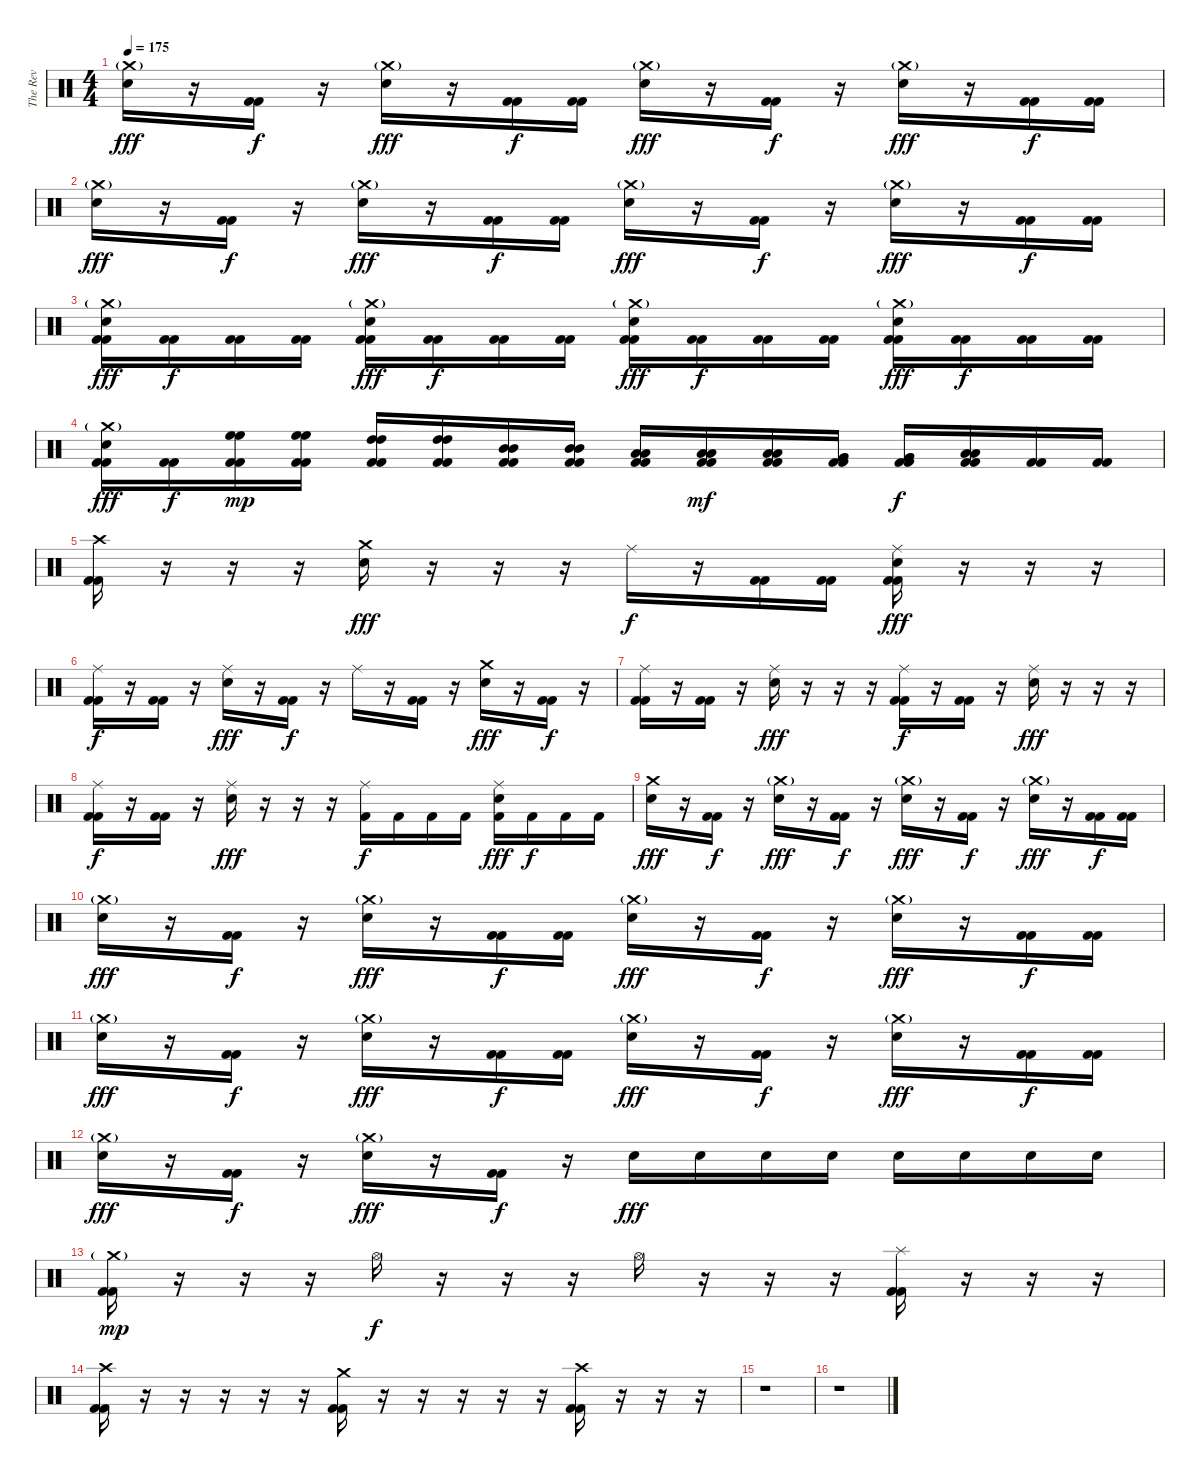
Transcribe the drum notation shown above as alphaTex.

\track ("The Rev" "The Rev") {instrument percussion}
\staff {score}
\articulation defaults
\ts (4 4)
\tempo 175
\clef neutral
\ks c
("Crash medium (hit)"{g} "Electric Snare (hit)").16{dy fff} r.16 ("Kick (hit) 2" "Kick (hit) 2").16{dy f} r.16 ("Crash medium (hit)"{g} "Electric Snare (hit)").16{dy fff} r.16 ("Kick (hit) 2" "Kick (hit) 2").16{dy f} ("Kick (hit) 2" "Kick (hit) 2").16 ("Crash medium (hit)"{g} "Electric Snare (hit)").16{dy fff} r.16 ("Kick (hit) 2" "Kick (hit) 2").16{dy f} r.16 ("Crash medium (hit)"{g} "Electric Snare (hit)").16{dy fff} r.16 ("Kick (hit) 2" "Kick (hit) 2").16{dy f} ("Kick (hit) 2" "Kick (hit) 2").16 |
("Crash medium (hit)"{g} "Electric Snare (hit)").16{dy fff} r.16 ("Kick (hit) 2" "Kick (hit) 2").16{dy f} r.16 ("Crash medium (hit)"{g} "Electric Snare (hit)").16{dy fff} r.16 ("Kick (hit) 2" "Kick (hit) 2").16{dy f} ("Kick (hit) 2" "Kick (hit) 2").16 ("Crash medium (hit)"{g} "Electric Snare (hit)").16{dy fff} r.16 ("Kick (hit) 2" "Kick (hit) 2").16{dy f} r.16 ("Crash medium (hit)"{g} "Electric Snare (hit)").16{dy fff} r.16 ("Kick (hit) 2" "Kick (hit) 2").16{dy f} ("Kick (hit) 2" "Kick (hit) 2").16 |
("Crash medium (hit)"{g} "Electric Snare (hit)" "Kick (hit) 2" "Kick (hit) 2").16{dy fff} ("Kick (hit) 2" "Kick (hit) 2").16{dy f} ("Kick (hit) 2" "Kick (hit) 2").16 ("Kick (hit) 2" "Kick (hit) 2").16 ("Crash medium (hit)"{g} "Electric Snare (hit)" "Kick (hit) 2" "Kick (hit) 2").16{dy fff} ("Kick (hit) 2" "Kick (hit) 2").16{dy f} ("Kick (hit) 2" "Kick (hit) 2").16 ("Kick (hit) 2" "Kick (hit) 2").16 ("Crash medium (hit)"{g} "Electric Snare (hit)" "Kick (hit) 2" "Kick (hit) 2").16{dy fff} ("Kick (hit) 2" "Kick (hit) 2").16{dy f} ("Kick (hit) 2" "Kick (hit) 2").16 ("Kick (hit) 2" "Kick (hit) 2").16 ("Crash medium (hit)"{g} "Electric Snare (hit)" "Kick (hit) 2" "Kick (hit) 2").16{dy fff} ("Kick (hit) 2" "Kick (hit) 2").16{dy f} ("Kick (hit) 2" "Kick (hit) 2").16 ("Kick (hit) 2" "Kick (hit) 2").16 |
("Crash medium (hit)"{g} "Electric Snare (hit)" "Kick (hit) 2" "Kick (hit) 2").16{dy fff} ("Kick (hit) 2" "Kick (hit) 2").16{dy f} ("High Floor Tom (hit)" "High Floor Tom (hit)" "Kick (hit) 2" "Kick (hit) 2").16{dy mp} ("High Floor Tom (hit)" "High Floor Tom (hit)" "Kick (hit) 2" "Kick (hit) 2").16 ("High Tom (hit)" "High Tom (hit)" "Kick (hit) 2" "Kick (hit) 2").16 ("High Tom (hit)" "High Tom (hit)" "Kick (hit) 2" "Kick (hit) 2").16 ("Mid Tom (hit)" "Mid Tom (hit)" "Kick (hit) 2" "Kick (hit) 2").16 ("Mid Tom (hit)" "Mid Tom (hit)" "Kick (hit) 2" "Kick (hit) 2").16 ("Low Tom (hit)" "Low Tom (hit)" "Kick (hit) 2" "Kick (hit) 2").16 ("Low Tom (hit)" "Low Tom (hit)" "Kick (hit) 2" "Kick (hit) 2").16{dy mf} ("Low Tom (hit)" "Low Tom (hit)" "Kick (hit) 2" "Kick (hit) 2").16 ("Very Low Tom (hit)" "Very Low Tom (hit)" "Kick (hit) 2" "Kick (hit) 2").16 ("Very Low Tom (hit)" "Very Low Tom (hit)" "Kick (hit) 2" "Kick (hit) 2").16{dy f} ("Low Floor Tom (hit)" "Low Floor Tom (hit)" "Kick (hit) 2" "Kick (hit) 2").16 ("Kick (hit) 2" "Kick (hit) 2").16 ("Kick (hit) 2" "Kick (hit) 2").16 |
("Crash high (hit)" "Kick (hit) 2" "Kick (hit) 2").16 r.16 r.16 r.16 ("Crash medium (hit)" "Electric Snare (hit)").16{dy fff} r.16 r.16 r.16 "Ride (middle)".16{dy f} r.16 ("Kick (hit) 2" "Kick (hit) 2").16 ("Kick (hit) 2" "Kick (hit) 2").16 ("Ride (middle)" "Electric Snare (hit)" "Kick (hit) 2" "Kick (hit) 2").16{dy fff} r.16 r.16 r.16 |
("Ride (middle)" "Kick (hit) 2" "Kick (hit) 2").16{dy f} r.16 ("Kick (hit) 2" "Kick (hit) 2").16 r.16 ("Ride (middle)" "Electric Snare (hit)").16{dy fff} r.16 ("Kick (hit) 2" "Kick (hit) 2").16{dy f} r.16 "Ride (middle)".16 r.16 ("Kick (hit) 2" "Kick (hit) 2").16 r.16 ("Crash medium (hit)" "Electric Snare (hit)").16{dy fff} r.16 ("Kick (hit) 2" "Kick (hit) 2").16{dy f} r.16 |
("Ride (middle)" "Kick (hit) 2" "Kick (hit) 2").16 r.16 ("Kick (hit) 2" "Kick (hit) 2").16 r.16 ("Ride (middle)" "Electric Snare (hit)").16{dy fff} r.16 r.16 r.16 ("Ride (middle)" "Kick (hit) 2" "Kick (hit) 2").16{dy f} r.16 ("Kick (hit) 2" "Kick (hit) 2").16 r.16 ("Ride (middle)" "Electric Snare (hit)").16{dy fff} r.16 r.16 r.16 |
("Ride (middle)" "Kick (hit) 2" "Kick (hit) 2").16{dy f} r.16 ("Kick (hit) 2" "Kick (hit) 2").16 r.16 ("Ride (middle)" "Electric Snare (hit)").16{dy fff} r.16 r.16 r.16 ("Ride (middle)" "Kick (hit) 2").16{dy f} "Kick (hit) 2".16 "Kick (hit) 2".16 "Kick (hit) 2".16 ("Ride (middle)" "Electric Snare (hit)" "Kick (hit) 2").16{dy fff} "Kick (hit) 2".16{dy f} "Kick (hit) 2".16 "Kick (hit) 2".16 |
("Crash medium (hit)" "Electric Snare (hit)").16{dy fff} r.16 ("Kick (hit) 2" "Kick (hit) 2").16{dy f} r.16 ("Crash medium (hit)"{g} "Electric Snare (hit)").16{dy fff} r.16 ("Kick (hit) 2" "Kick (hit) 2").16{dy f} r.16 ("Crash medium (hit)"{g} "Electric Snare (hit)").16{dy fff} r.16 ("Kick (hit) 2" "Kick (hit) 2").16{dy f} r.16 ("Crash medium (hit)"{g} "Electric Snare (hit)").16{dy fff} r.16 ("Kick (hit) 2" "Kick (hit) 2").16{dy f} ("Kick (hit) 2" "Kick (hit) 2").16 |
("Crash medium (hit)"{g} "Electric Snare (hit)").16{dy fff} r.16 ("Kick (hit) 2" "Kick (hit) 2").16{dy f} r.16 ("Crash medium (hit)"{g} "Electric Snare (hit)").16{dy fff} r.16 ("Kick (hit) 2" "Kick (hit) 2").16{dy f} ("Kick (hit) 2" "Kick (hit) 2").16 ("Crash medium (hit)"{g} "Electric Snare (hit)").16{dy fff} r.16 ("Kick (hit) 2" "Kick (hit) 2").16{dy f} r.16 ("Crash medium (hit)"{g} "Electric Snare (hit)").16{dy fff} r.16 ("Kick (hit) 2" "Kick (hit) 2").16{dy f} ("Kick (hit) 2" "Kick (hit) 2").16 |
("Crash medium (hit)"{g} "Electric Snare (hit)").16{dy fff} r.16 ("Kick (hit) 2" "Kick (hit) 2").16{dy f} r.16 ("Crash medium (hit)"{g} "Electric Snare (hit)").16{dy fff} r.16 ("Kick (hit) 2" "Kick (hit) 2").16{dy f} ("Kick (hit) 2" "Kick (hit) 2").16 ("Crash medium (hit)"{g} "Electric Snare (hit)").16{dy fff} r.16 ("Kick (hit) 2" "Kick (hit) 2").16{dy f} r.16 ("Crash medium (hit)"{g} "Electric Snare (hit)").16{dy fff} r.16 ("Kick (hit) 2" "Kick (hit) 2").16{dy f} ("Kick (hit) 2" "Kick (hit) 2").16 |
("Crash medium (hit)"{g} "Electric Snare (hit)").16{dy fff} r.16 ("Kick (hit) 2" "Kick (hit) 2").16{dy f} r.16 ("Crash medium (hit)"{g} "Electric Snare (hit)").16{dy fff} r.16 ("Kick (hit) 2" "Kick (hit) 2").16{dy f} r.16 "Electric Snare (hit)".16{dy fff} "Electric Snare (hit)".16 "Electric Snare (hit)".16 "Electric Snare (hit)".16 "Electric Snare (hit)".16 "Electric Snare (hit)".16 "Electric Snare (hit)".16 "Electric Snare (hit)".16 |
("Crash medium (hit)"{g} "Kick (hit) 2" "Kick (hit) 2").16{dy mp} r.16 r.16 r.16 "Hi-Hat (open)".16{dy f} r.16 r.16 r.16 "Hi-Hat (open)".16 r.16 r.16 r.16 ("Splash (hit)" "Kick (hit) 2" "Kick (hit) 2").16 r.16 r.16 r.16 |
("Crash high (hit)" "Kick (hit) 2" "Kick (hit) 2").16 r.16 r.16 r.16 r.16 r.16 ("Crash medium (hit)" "Kick (hit) 2" "Kick (hit) 2").16 r.16 r.16 r.16 r.16 r.16 ("Crash high (hit)" "Kick (hit) 2" "Kick (hit) 2").16 r.16 r.16 r.16 |
r.1 |
r.1
